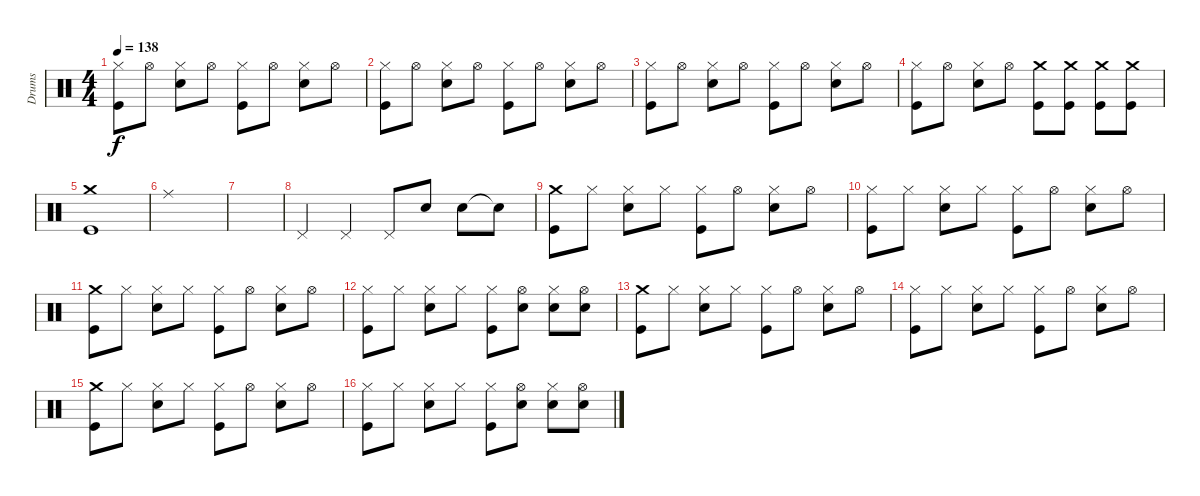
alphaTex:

\track ("Drums" "Drums") {instrument percussion}
\staff {score}
\articulation defaults
\ts (4 4)
\tempo 138
\clef neutral
\ks c
("Hi-Hat (closed)" "Kick (hit)").8{dy f} "Hi-Hat (open)".8 ("Hi-Hat (closed)" "Electric Snare (hit)").8 "Hi-Hat (open)".8 ("Hi-Hat (closed)" "Kick (hit)").8 "Hi-Hat (open)".8 ("Hi-Hat (closed)" "Electric Snare (hit)").8 "Hi-Hat (open)".8 |
("Hi-Hat (closed)" "Kick (hit)").8 "Hi-Hat (open)".8 ("Hi-Hat (closed)" "Electric Snare (hit)").8 "Hi-Hat (open)".8 ("Hi-Hat (closed)" "Kick (hit)").8 "Hi-Hat (open)".8 ("Hi-Hat (closed)" "Electric Snare (hit)").8 "Hi-Hat (open)".8 |
("Hi-Hat (closed)" "Kick (hit)").8 "Hi-Hat (open)".8 ("Hi-Hat (closed)" "Electric Snare (hit)").8 "Hi-Hat (open)".8 ("Hi-Hat (closed)" "Kick (hit)").8 "Hi-Hat (open)".8 ("Hi-Hat (closed)" "Electric Snare (hit)").8 "Hi-Hat (open)".8 |
("Hi-Hat (closed)" "Kick (hit)").8 "Hi-Hat (open)".8 ("Hi-Hat (closed)" "Electric Snare (hit)").8 "Hi-Hat (open)".8 ("Crash medium (hit)" "Kick (hit)").8 ("Crash medium (hit)" "Kick (hit)").8 ("Crash medium (hit)" "Kick (hit)").8 ("Crash medium (hit)" "Kick (hit)").8 |
("Crash medium (hit)" "Kick (hit)").1 |
"Ride (middle)".1 |
|
"Pedal Hi-Hat (hit)".4 "Pedal Hi-Hat (hit)".4 "Pedal Hi-Hat (hit)".8 "Electric Snare (hit)".8 "Electric Snare (hit)".8 "Snare (hit)"{t}.8 |
("Crash medium (hit)" "Kick (hit)").8 "Hi-Hat (closed)".8 ("Hi-Hat (closed)" "Electric Snare (hit)").8 "Hi-Hat (closed)".8 ("Hi-Hat (closed)" "Kick (hit)").8 "Hi-Hat (open)".8 ("Hi-Hat (closed)" "Electric Snare (hit)").8 "Hi-Hat (open)".8 |
("Hi-Hat (closed)" "Kick (hit)").8 "Hi-Hat (closed)".8 ("Hi-Hat (closed)" "Electric Snare (hit)").8 "Hi-Hat (closed)".8 ("Hi-Hat (closed)" "Kick (hit)").8 "Hi-Hat (open)".8 ("Hi-Hat (closed)" "Electric Snare (hit)").8 "Hi-Hat (open)".8 |
("Crash medium (hit)" "Kick (hit)").8 "Hi-Hat (closed)".8 ("Hi-Hat (closed)" "Electric Snare (hit)").8 "Hi-Hat (closed)".8 ("Hi-Hat (closed)" "Kick (hit)").8 "Hi-Hat (open)".8 ("Hi-Hat (closed)" "Electric Snare (hit)").8 "Hi-Hat (open)".8 |
("Hi-Hat (closed)" "Kick (hit)").8 "Hi-Hat (closed)".8 ("Hi-Hat (closed)" "Electric Snare (hit)").8 "Hi-Hat (closed)".8 ("Hi-Hat (closed)" "Kick (hit)").8 ("Hi-Hat (open)" "Electric Snare (hit)").8 ("Hi-Hat (closed)" "Electric Snare (hit)").8 ("Hi-Hat (open)" "Electric Snare (hit)").8 |
("Crash medium (hit)" "Kick (hit)").8 "Hi-Hat (closed)".8 ("Hi-Hat (closed)" "Electric Snare (hit)").8 "Hi-Hat (closed)".8 ("Hi-Hat (closed)" "Kick (hit)").8 "Hi-Hat (open)".8 ("Hi-Hat (closed)" "Electric Snare (hit)").8 "Hi-Hat (open)".8 |
("Hi-Hat (closed)" "Kick (hit)").8 "Hi-Hat (closed)".8 ("Hi-Hat (closed)" "Electric Snare (hit)").8 "Hi-Hat (closed)".8 ("Hi-Hat (closed)" "Kick (hit)").8 "Hi-Hat (open)".8 ("Hi-Hat (closed)" "Electric Snare (hit)").8 "Hi-Hat (open)".8 |
("Crash medium (hit)" "Kick (hit)").8 "Hi-Hat (closed)".8 ("Hi-Hat (closed)" "Electric Snare (hit)").8 "Hi-Hat (closed)".8 ("Hi-Hat (closed)" "Kick (hit)").8 "Hi-Hat (open)".8 ("Hi-Hat (closed)" "Electric Snare (hit)").8 "Hi-Hat (open)".8 |
("Hi-Hat (closed)" "Kick (hit)").8 "Hi-Hat (closed)".8 ("Hi-Hat (closed)" "Electric Snare (hit)").8 "Hi-Hat (closed)".8 ("Hi-Hat (closed)" "Kick (hit)").8 ("Hi-Hat (open)" "Electric Snare (hit)").8 ("Hi-Hat (closed)" "Electric Snare (hit)").8 ("Hi-Hat (open)" "Electric Snare (hit)").8
